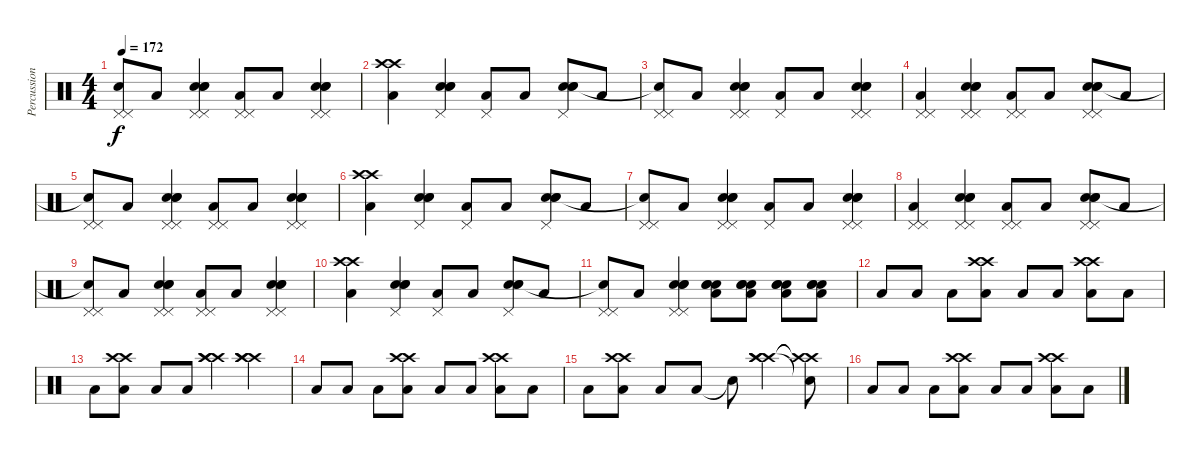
\track ("Percussion" "Percussion") {instrument percussion}
\staff {score}
\articulation defaults
\ts (4 4)
\tempo 172
\clef neutral
\ks c
("Pedal Hi-Hat (hit)" "Pedal Hi-Hat (hit)" "Snare (hit)"{t}).8{dy f} "Low Floor Tom (hit)".8 ("Pedal Hi-Hat (hit)" "Pedal Hi-Hat (hit)" "Electric Snare (hit)" "Electric Snare (hit)" "Electric Snare (hit)").4 ("Pedal Hi-Hat (hit)" "Pedal Hi-Hat (hit)" "Low Floor Tom (hit)").8 "Low Floor Tom (hit)".8 ("Pedal Hi-Hat (hit)" "Pedal Hi-Hat (hit)" "Electric Snare (hit)" "Electric Snare (hit)" "Electric Snare (hit)").4 |
("Crash high (hit)" "Crash high (hit)" "Low Floor Tom (hit)").4 ("Pedal Hi-Hat (hit)" "Electric Snare (hit)" "Electric Snare (hit)" "Electric Snare (hit)").4 ("Pedal Hi-Hat (hit)" "Low Floor Tom (hit)").8 "Low Floor Tom (hit)".8 ("Pedal Hi-Hat (hit)" "Electric Snare (hit)" "Electric Snare (hit)" "Electric Snare (hit)").8 "Low Floor Tom (hit)".8 |
("Pedal Hi-Hat (hit)" "Pedal Hi-Hat (hit)" "Snare (hit)"{t}).8 "Low Floor Tom (hit)".8 ("Pedal Hi-Hat (hit)" "Pedal Hi-Hat (hit)" "Electric Snare (hit)" "Electric Snare (hit)" "Electric Snare (hit)").4 ("Pedal Hi-Hat (hit)" "Low Floor Tom (hit)").8 "Low Floor Tom (hit)".8 ("Pedal Hi-Hat (hit)" "Pedal Hi-Hat (hit)" "Electric Snare (hit)" "Electric Snare (hit)" "Electric Snare (hit)").4 |
("Pedal Hi-Hat (hit)" "Pedal Hi-Hat (hit)" "Low Floor Tom (hit)").4 ("Pedal Hi-Hat (hit)" "Pedal Hi-Hat (hit)" "Electric Snare (hit)" "Electric Snare (hit)" "Electric Snare (hit)").4 ("Pedal Hi-Hat (hit)" "Pedal Hi-Hat (hit)" "Low Floor Tom (hit)").8 "Low Floor Tom (hit)".8 ("Pedal Hi-Hat (hit)" "Pedal Hi-Hat (hit)" "Electric Snare (hit)" "Electric Snare (hit)" "Electric Snare (hit)").8 "Low Floor Tom (hit)".8 |
("Pedal Hi-Hat (hit)" "Pedal Hi-Hat (hit)" "Snare (hit)"{t}).8 "Low Floor Tom (hit)".8 ("Pedal Hi-Hat (hit)" "Pedal Hi-Hat (hit)" "Electric Snare (hit)" "Electric Snare (hit)" "Electric Snare (hit)").4 ("Pedal Hi-Hat (hit)" "Pedal Hi-Hat (hit)" "Low Floor Tom (hit)").8 "Low Floor Tom (hit)".8 ("Pedal Hi-Hat (hit)" "Pedal Hi-Hat (hit)" "Electric Snare (hit)" "Electric Snare (hit)" "Electric Snare (hit)").4 |
("Crash high (hit)" "Crash high (hit)" "Low Floor Tom (hit)").4 ("Pedal Hi-Hat (hit)" "Electric Snare (hit)" "Electric Snare (hit)" "Electric Snare (hit)").4 ("Pedal Hi-Hat (hit)" "Low Floor Tom (hit)").8 "Low Floor Tom (hit)".8 ("Pedal Hi-Hat (hit)" "Electric Snare (hit)" "Electric Snare (hit)" "Electric Snare (hit)").8 "Low Floor Tom (hit)".8 |
("Pedal Hi-Hat (hit)" "Pedal Hi-Hat (hit)" "Snare (hit)"{t}).8 "Low Floor Tom (hit)".8 ("Pedal Hi-Hat (hit)" "Pedal Hi-Hat (hit)" "Electric Snare (hit)" "Electric Snare (hit)" "Electric Snare (hit)").4 ("Pedal Hi-Hat (hit)" "Low Floor Tom (hit)").8 "Low Floor Tom (hit)".8 ("Pedal Hi-Hat (hit)" "Pedal Hi-Hat (hit)" "Electric Snare (hit)" "Electric Snare (hit)" "Electric Snare (hit)").4 |
("Pedal Hi-Hat (hit)" "Pedal Hi-Hat (hit)" "Low Floor Tom (hit)").4 ("Pedal Hi-Hat (hit)" "Pedal Hi-Hat (hit)" "Electric Snare (hit)" "Electric Snare (hit)" "Electric Snare (hit)").4 ("Pedal Hi-Hat (hit)" "Pedal Hi-Hat (hit)" "Low Floor Tom (hit)").8 "Low Floor Tom (hit)".8 ("Pedal Hi-Hat (hit)" "Pedal Hi-Hat (hit)" "Electric Snare (hit)" "Electric Snare (hit)" "Electric Snare (hit)").8 "Low Floor Tom (hit)".8 |
("Pedal Hi-Hat (hit)" "Pedal Hi-Hat (hit)" "Snare (hit)"{t}).8 "Low Floor Tom (hit)".8 ("Pedal Hi-Hat (hit)" "Pedal Hi-Hat (hit)" "Electric Snare (hit)" "Electric Snare (hit)" "Electric Snare (hit)").4 ("Pedal Hi-Hat (hit)" "Pedal Hi-Hat (hit)" "Low Floor Tom (hit)").8 "Low Floor Tom (hit)".8 ("Pedal Hi-Hat (hit)" "Pedal Hi-Hat (hit)" "Electric Snare (hit)" "Electric Snare (hit)" "Electric Snare (hit)").4 |
("Crash high (hit)" "Crash high (hit)" "Low Floor Tom (hit)").4 ("Pedal Hi-Hat (hit)" "Electric Snare (hit)" "Electric Snare (hit)" "Electric Snare (hit)").4 ("Pedal Hi-Hat (hit)" "Low Floor Tom (hit)").8 "Low Floor Tom (hit)".8 ("Pedal Hi-Hat (hit)" "Electric Snare (hit)" "Electric Snare (hit)" "Electric Snare (hit)").8 "Low Floor Tom (hit)".8 |
("Pedal Hi-Hat (hit)" "Pedal Hi-Hat (hit)" "Snare (hit)"{t}).8 "Low Floor Tom (hit)".8 ("Pedal Hi-Hat (hit)" "Pedal Hi-Hat (hit)" "Electric Snare (hit)" "Electric Snare (hit)" "Electric Snare (hit)").4 ("Electric Snare (hit)" "Electric Snare (hit)" "Electric Snare (hit)" "Low Floor Tom (hit)").8 ("Electric Snare (hit)" "Electric Snare (hit)" "Electric Snare (hit)" "Low Floor Tom (hit)").8 ("Electric Snare (hit)" "Electric Snare (hit)" "Electric Snare (hit)" "Low Floor Tom (hit)").8 ("Electric Snare (hit)" "Electric Snare (hit)" "Electric Snare (hit)" "Low Floor Tom (hit)").8 |
"Low Floor Tom (hit)".8 "Low Floor Tom (hit)".8 "Low Floor Tom (hit)".8 ("Crash high (hit)" "Crash high (hit)" "Low Floor Tom (hit)").8 "Low Floor Tom (hit)".8 "Low Floor Tom (hit)".8 ("Crash high (hit)" "Crash high (hit)" "Low Floor Tom (hit)").8 "Low Floor Tom (hit)".8 |
"Low Floor Tom (hit)".8 ("Crash high (hit)" "Crash high (hit)" "Low Floor Tom (hit)").8 "Low Floor Tom (hit)".8 "Low Floor Tom (hit)".8 ("Crash high (hit)" "Crash high (hit)" "Crash high (hit)").4 ("Crash high (hit)" "Crash high (hit)" "Crash high (hit)").4 |
"Low Floor Tom (hit)".8 "Low Floor Tom (hit)".8 "Low Floor Tom (hit)".8 ("Crash high (hit)" "Crash high (hit)" "Low Floor Tom (hit)").8 "Low Floor Tom (hit)".8 "Low Floor Tom (hit)".8 ("Crash high (hit)" "Crash high (hit)" "Low Floor Tom (hit)").8 "Low Floor Tom (hit)".8 |
"Low Floor Tom (hit)".8 ("Crash high (hit)" "Crash high (hit)" "Low Floor Tom (hit)").8 "Low Floor Tom (hit)".8 "Low Floor Tom (hit)".8 "Snare (hit)"{t}.8 ("Crash high (hit)" "Crash high (hit)" "Crash high (hit)").4 ("Crash high (hit)"{t} "Crash high (hit)"{t} "Snare (hit)"{t}).8 |
"Low Floor Tom (hit)".8 "Low Floor Tom (hit)".8 "Low Floor Tom (hit)".8 ("Crash high (hit)" "Crash high (hit)" "Low Floor Tom (hit)").8 "Low Floor Tom (hit)".8 "Low Floor Tom (hit)".8 ("Crash high (hit)" "Crash high (hit)" "Low Floor Tom (hit)").8 "Low Floor Tom (hit)".8
